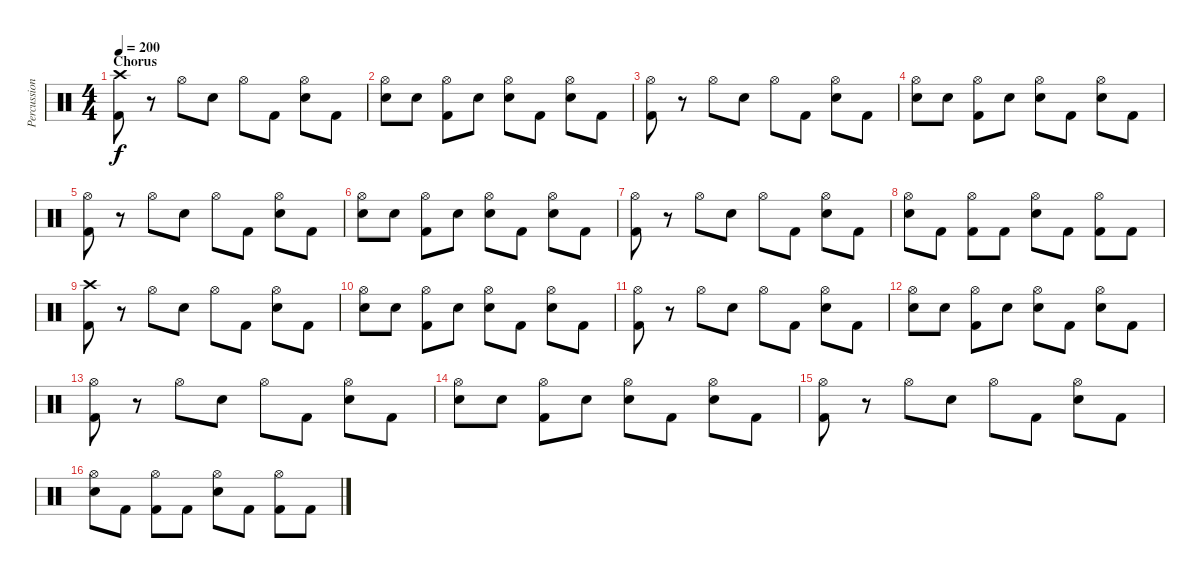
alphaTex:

\track ("Percussion" "Percussion") {instrument percussion}
\staff {score}
\articulation defaults
\ts (4 4)
\section ("" "Chorus")
\tempo 200
\clef neutral
\ks c
("Crash high (hit)" "Kick (hit) 2").8{dy f} r.8 "Hi-Hat (open)".8 "Electric Snare (hit)".8 "Hi-Hat (open)".8 "Kick (hit) 2".8 ("Hi-Hat (open)" "Electric Snare (hit)").8 "Kick (hit) 2".8 |
("Hi-Hat (open)" "Electric Snare (hit)").8 "Electric Snare (hit)".8 ("Hi-Hat (open)" "Kick (hit) 2").8 "Electric Snare (hit)".8 ("Hi-Hat (open)" "Electric Snare (hit)").8 "Kick (hit) 2".8 ("Hi-Hat (open)" "Electric Snare (hit)").8 "Kick (hit) 2".8 |
("Hi-Hat (open)" "Kick (hit) 2").8 r.8 "Hi-Hat (open)".8 "Electric Snare (hit)".8 "Hi-Hat (open)".8 "Kick (hit) 2".8 ("Hi-Hat (open)" "Electric Snare (hit)").8 "Kick (hit) 2".8 |
("Hi-Hat (open)" "Electric Snare (hit)").8 "Electric Snare (hit)".8 ("Hi-Hat (open)" "Kick (hit) 2").8 "Electric Snare (hit)".8 ("Hi-Hat (open)" "Electric Snare (hit)").8 "Kick (hit) 2".8 ("Hi-Hat (open)" "Electric Snare (hit)").8 "Kick (hit) 2".8 |
("Hi-Hat (open)" "Kick (hit) 2").8 r.8 "Hi-Hat (open)".8 "Electric Snare (hit)".8 "Hi-Hat (open)".8 "Kick (hit) 2".8 ("Hi-Hat (open)" "Electric Snare (hit)").8 "Kick (hit) 2".8 |
("Hi-Hat (open)" "Electric Snare (hit)").8 "Electric Snare (hit)".8 ("Hi-Hat (open)" "Kick (hit) 2").8 "Electric Snare (hit)".8 ("Hi-Hat (open)" "Electric Snare (hit)").8 "Kick (hit) 2".8 ("Hi-Hat (open)" "Electric Snare (hit)").8 "Kick (hit) 2".8 |
("Hi-Hat (open)" "Kick (hit) 2").8 r.8 "Hi-Hat (open)".8 "Electric Snare (hit)".8 "Hi-Hat (open)".8 "Kick (hit) 2".8 ("Hi-Hat (open)" "Electric Snare (hit)").8 "Kick (hit) 2".8 |
("Hi-Hat (open)" "Electric Snare (hit)").8 "Kick (hit) 2".8 ("Hi-Hat (open)" "Kick (hit) 2").8 "Kick (hit) 2".8 ("Hi-Hat (open)" "Electric Snare (hit)").8 "Kick (hit) 2".8 ("Hi-Hat (open)" "Kick (hit) 2").8 "Kick (hit) 2".8 |
("Crash high (hit)" "Kick (hit) 2").8 r.8 "Hi-Hat (open)".8 "Electric Snare (hit)".8 "Hi-Hat (open)".8 "Kick (hit) 2".8 ("Hi-Hat (open)" "Electric Snare (hit)").8 "Kick (hit) 2".8 |
("Hi-Hat (open)" "Electric Snare (hit)").8 "Electric Snare (hit)".8 ("Hi-Hat (open)" "Kick (hit) 2").8 "Electric Snare (hit)".8 ("Hi-Hat (open)" "Electric Snare (hit)").8 "Kick (hit) 2".8 ("Hi-Hat (open)" "Electric Snare (hit)").8 "Kick (hit) 2".8 |
("Hi-Hat (open)" "Kick (hit) 2").8 r.8 "Hi-Hat (open)".8 "Electric Snare (hit)".8 "Hi-Hat (open)".8 "Kick (hit) 2".8 ("Hi-Hat (open)" "Electric Snare (hit)").8 "Kick (hit) 2".8 |
("Hi-Hat (open)" "Electric Snare (hit)").8 "Electric Snare (hit)".8 ("Hi-Hat (open)" "Kick (hit) 2").8 "Electric Snare (hit)".8 ("Hi-Hat (open)" "Electric Snare (hit)").8 "Kick (hit) 2".8 ("Hi-Hat (open)" "Electric Snare (hit)").8 "Kick (hit) 2".8 |
("Hi-Hat (open)" "Kick (hit) 2").8 r.8 "Hi-Hat (open)".8 "Electric Snare (hit)".8 "Hi-Hat (open)".8 "Kick (hit) 2".8 ("Hi-Hat (open)" "Electric Snare (hit)").8 "Kick (hit) 2".8 |
("Hi-Hat (open)" "Electric Snare (hit)").8 "Electric Snare (hit)".8 ("Hi-Hat (open)" "Kick (hit) 2").8 "Electric Snare (hit)".8 ("Hi-Hat (open)" "Electric Snare (hit)").8 "Kick (hit) 2".8 ("Hi-Hat (open)" "Electric Snare (hit)").8 "Kick (hit) 2".8 |
("Hi-Hat (open)" "Kick (hit) 2").8 r.8 "Hi-Hat (open)".8 "Electric Snare (hit)".8 "Hi-Hat (open)".8 "Kick (hit) 2".8 ("Hi-Hat (open)" "Electric Snare (hit)").8 "Kick (hit) 2".8 |
("Hi-Hat (open)" "Electric Snare (hit)").8 "Kick (hit) 2".8 ("Hi-Hat (open)" "Kick (hit) 2").8 "Kick (hit) 2".8 ("Hi-Hat (open)" "Electric Snare (hit)").8 "Kick (hit) 2".8 ("Hi-Hat (open)" "Kick (hit) 2").8 "Kick (hit) 2".8
